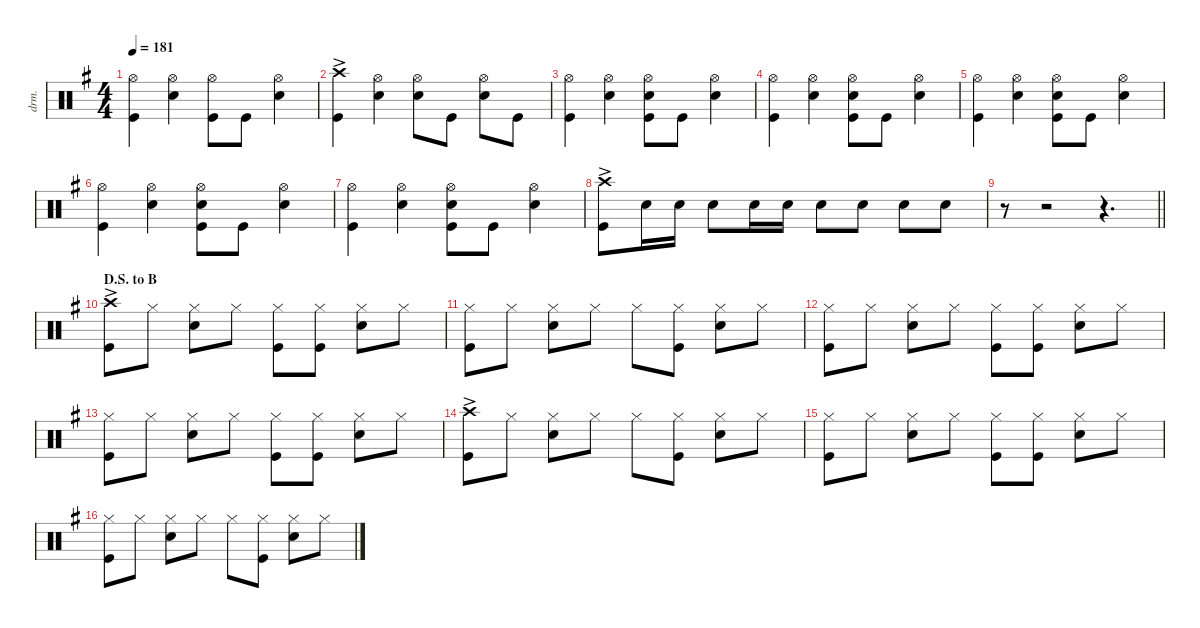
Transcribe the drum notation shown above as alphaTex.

\defaultSystemsLayout 4
\hideDynamics
\bracketExtendMode nobrackets
\track ("Drums" "drm.") {instrument percussion}
\staff {score}
\articulation defaults
\ts (4 4)
\tempo 181
\clef neutral
\ks g
("Hi-Hat (open)"{acc forcenatural} "Kick (hit)"{acc forcenatural}).4{dy f} ("Hi-Hat (open)"{acc forcenatural} "Snare (hit) 2"{acc forcenatural}).4 ("Hi-Hat (open)"{acc forcenatural} "Kick (hit)"{acc forcenatural}).8 "Kick (hit)"{acc forcenatural}.8 ("Hi-Hat (open)"{acc forcenatural} "Snare (hit) 2"{acc forcenatural}).4 |
("Crash high (hit)"{ac acc forcenatural} "Kick (hit)"{acc forcenatural}).4 ("Hi-Hat (open)"{acc forcenatural} "Snare (hit) 2"{acc forcenatural}).4 ("Hi-Hat (open)"{acc forcenatural} "Snare (hit) 2"{acc forcenatural}).8 "Kick (hit)"{acc forcenatural}.8 ("Hi-Hat (open)"{acc forcenatural} "Snare (hit) 2"{acc forcenatural}).8 "Kick (hit)"{acc forcenatural}.8 |
("Hi-Hat (open)"{acc forcenatural} "Kick (hit)"{acc forcenatural}).4 ("Hi-Hat (open)"{acc forcenatural} "Snare (hit) 2"{acc forcenatural}).4 ("Hi-Hat (open)"{acc forcenatural} "Kick (hit)"{acc forcenatural} "Snare (hit) 2"{acc forcenatural}).8 "Kick (hit)"{acc forcenatural}.8 ("Hi-Hat (open)"{acc forcenatural} "Snare (hit) 2"{acc forcenatural}).4 |
("Hi-Hat (open)"{acc forcenatural} "Kick (hit)"{acc forcenatural}).4 ("Hi-Hat (open)"{acc forcenatural} "Snare (hit) 2"{acc forcenatural}).4 ("Hi-Hat (open)"{acc forcenatural} "Kick (hit)"{acc forcenatural} "Snare (hit) 2"{acc forcenatural}).8 "Kick (hit)"{acc forcenatural}.8 ("Hi-Hat (open)"{acc forcenatural} "Snare (hit) 2"{acc forcenatural}).4 |
("Hi-Hat (open)"{acc forcenatural} "Kick (hit)"{acc forcenatural}).4 ("Hi-Hat (open)"{acc forcenatural} "Snare (hit) 2"{acc forcenatural}).4 ("Hi-Hat (open)"{acc forcenatural} "Kick (hit)"{acc forcenatural} "Snare (hit) 2"{acc forcenatural}).8 "Kick (hit)"{acc forcenatural}.8 ("Hi-Hat (open)"{acc forcenatural} "Snare (hit) 2"{acc forcenatural}).4 |
("Hi-Hat (open)"{acc forcenatural} "Kick (hit)"{acc forcenatural}).4 ("Hi-Hat (open)"{acc forcenatural} "Snare (hit) 2"{acc forcenatural}).4 ("Hi-Hat (open)"{acc forcenatural} "Kick (hit)"{acc forcenatural} "Snare (hit) 2"{acc forcenatural}).8 "Kick (hit)"{acc forcenatural}.8 ("Hi-Hat (open)"{acc forcenatural} "Snare (hit) 2"{acc forcenatural}).4 |
("Hi-Hat (open)"{acc forcenatural} "Kick (hit)"{acc forcenatural}).4 ("Hi-Hat (open)"{acc forcenatural} "Snare (hit) 2"{acc forcenatural}).4 ("Hi-Hat (open)"{acc forcenatural} "Kick (hit)"{acc forcenatural} "Snare (hit) 2"{acc forcenatural}).8 "Kick (hit)"{acc forcenatural}.8 ("Hi-Hat (open)"{acc forcenatural} "Snare (hit) 2"{acc forcenatural}).4 |
("Crash high (hit)"{ac acc forcenatural} "Kick (hit)"{acc forcenatural}).8 "Snare (hit) 2"{acc forcenatural}.16 "Snare (hit) 2"{acc forcenatural}.16 "Snare (hit) 2"{acc forcenatural}.8 "Snare (hit) 2"{acc forcenatural}.16 "Snare (hit) 2"{acc forcenatural}.16 "Snare (hit) 2"{acc forcenatural}.8 "Snare (hit) 2"{acc forcenatural}.8 "Snare (hit) 2"{acc forcenatural}.8 "Snare (hit) 2"{acc forcenatural}.8 |
\barLineRight lightlight
r.8 r.2 r.4{d} |
\section ("" "D.S. to B")
("Crash high (hit)"{ac acc forcenatural} "Kick (hit)"{acc forcenatural}).8 "Hi-Hat (closed)"{acc forcenatural}.8 ("Hi-Hat (closed)"{acc forcenatural} "Snare (hit) 2"{acc forcenatural}).8 "Hi-Hat (closed)"{acc forcenatural}.8 ("Hi-Hat (closed)"{acc forcenatural} "Kick (hit)"{acc forcenatural}).8 ("Hi-Hat (closed)"{acc forcenatural} "Kick (hit)"{acc forcenatural}).8 ("Hi-Hat (closed)"{acc forcenatural} "Snare (hit) 2"{acc forcenatural}).8 "Hi-Hat (closed)"{acc forcenatural}.8 |
("Hi-Hat (closed)"{acc forcenatural} "Kick (hit)"{acc forcenatural}).8 "Hi-Hat (closed)"{acc forcenatural}.8 ("Hi-Hat (closed)"{acc forcenatural} "Snare (hit) 2"{acc forcenatural}).8 "Hi-Hat (closed)"{acc forcenatural}.8 "Hi-Hat (closed)"{acc forcenatural}.8 ("Hi-Hat (closed)"{acc forcenatural} "Kick (hit)"{acc forcenatural}).8 ("Hi-Hat (closed)"{acc forcenatural} "Snare (hit) 2"{acc forcenatural}).8 "Hi-Hat (closed)"{acc forcenatural}.8 |
("Hi-Hat (closed)"{acc forcenatural} "Kick (hit)"{acc forcenatural}).8 "Hi-Hat (closed)"{acc forcenatural}.8 ("Hi-Hat (closed)"{acc forcenatural} "Snare (hit) 2"{acc forcenatural}).8 "Hi-Hat (closed)"{acc forcenatural}.8 ("Hi-Hat (closed)"{acc forcenatural} "Kick (hit)"{acc forcenatural}).8 ("Kick (hit)"{acc forcenatural} "Hi-Hat (closed)"{acc forcenatural}).8 ("Snare (hit) 2"{acc forcenatural} "Hi-Hat (closed)"{acc forcenatural}).8 "Hi-Hat (closed)"{acc forcenatural}.8 |
("Kick (hit)"{acc forcenatural} "Hi-Hat (closed)"{acc forcenatural}).8 "Hi-Hat (closed)"{acc forcenatural}.8 ("Snare (hit) 2"{acc forcenatural} "Hi-Hat (closed)"{acc forcenatural}).8 "Hi-Hat (closed)"{acc forcenatural}.8 ("Hi-Hat (closed)"{acc forcenatural} "Kick (hit)"{acc forcenatural}).8 ("Kick (hit)"{acc forcenatural} "Hi-Hat (closed)"{acc forcenatural}).8 ("Hi-Hat (closed)"{acc forcenatural} "Snare (hit) 2"{acc forcenatural}).8 "Hi-Hat (closed)"{acc forcenatural}.8 |
("Crash high (hit)"{ac acc forcenatural} "Kick (hit)"{acc forcenatural}).8 "Hi-Hat (closed)"{acc forcenatural}.8 ("Hi-Hat (closed)"{acc forcenatural} "Snare (hit) 2"{acc forcenatural}).8 "Hi-Hat (closed)"{acc forcenatural}.8 "Hi-Hat (closed)"{acc forcenatural}.8 ("Hi-Hat (closed)"{acc forcenatural} "Kick (hit)"{acc forcenatural}).8 ("Hi-Hat (closed)"{acc forcenatural} "Snare (hit) 2"{acc forcenatural}).8 "Hi-Hat (closed)"{acc forcenatural}.8 |
("Hi-Hat (closed)"{acc forcenatural} "Kick (hit)"{acc forcenatural}).8 "Hi-Hat (closed)"{acc forcenatural}.8 ("Hi-Hat (closed)"{acc forcenatural} "Snare (hit) 2"{acc forcenatural}).8 "Hi-Hat (closed)"{acc forcenatural}.8 ("Hi-Hat (closed)"{acc forcenatural} "Kick (hit)"{acc forcenatural}).8 ("Kick (hit)"{acc forcenatural} "Hi-Hat (closed)"{acc forcenatural}).8 ("Hi-Hat (closed)"{acc forcenatural} "Snare (hit) 2"{acc forcenatural}).8 "Hi-Hat (closed)"{acc forcenatural}.8 |
("Hi-Hat (closed)"{acc forcenatural} "Kick (hit)"{acc forcenatural}).8 "Hi-Hat (closed)"{acc forcenatural}.8 ("Hi-Hat (closed)"{acc forcenatural} "Snare (hit) 2"{acc forcenatural}).8 "Hi-Hat (closed)"{acc forcenatural}.8 "Hi-Hat (closed)"{acc forcenatural}.8 ("Hi-Hat (closed)"{acc forcenatural} "Kick (hit)"{acc forcenatural}).8 ("Snare (hit) 2"{acc forcenatural} "Hi-Hat (closed)"{acc forcenatural}).8 "Hi-Hat (closed)"{acc forcenatural}.8
